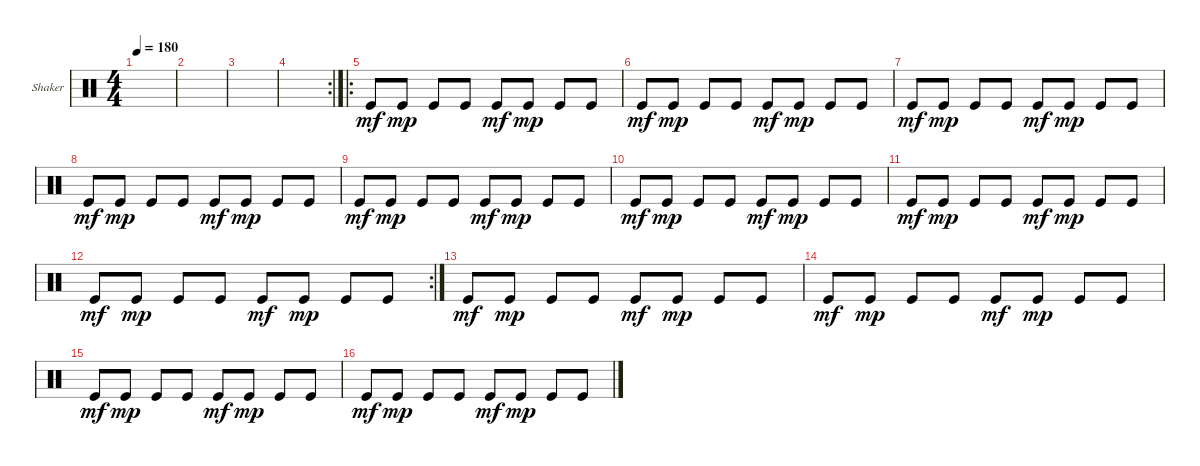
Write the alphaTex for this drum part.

\defaultSystemsLayout 4
\bracketExtendMode groupsimilarinstruments
\firstSystemTrackNameOrientation horizontal
\otherSystemsTrackNameOrientation horizontal
\track ("Shaker" "Shaker") {instrument percussion}
\staff {score}
\articulation defaults
\ts (4 4)
\tempo 180
\clef neutral
\ks c
|
|
|
\rc 2
|
\ro "Kick (hit)".8{dy mf} "Kick (hit)".8{dy mp} "Kick (hit)".8 "Kick (hit)".8 "Kick (hit)".8{dy mf} "Kick (hit)".8{dy mp} "Kick (hit)".8 "Kick (hit)".8
|
"Kick (hit)".8{dy mf} "Kick (hit)".8{dy mp} "Kick (hit)".8 "Kick (hit)".8 "Kick (hit)".8{dy mf} "Kick (hit)".8{dy mp} "Kick (hit)".8 "Kick (hit)".8 |
"Kick (hit)".8{dy mf} "Kick (hit)".8{dy mp} "Kick (hit)".8 "Kick (hit)".8 "Kick (hit)".8{dy mf} "Kick (hit)".8{dy mp} "Kick (hit)".8 "Kick (hit)".8 |
"Kick (hit)".8{dy mf} "Kick (hit)".8{dy mp} "Kick (hit)".8 "Kick (hit)".8 "Kick (hit)".8{dy mf} "Kick (hit)".8{dy mp} "Kick (hit)".8 "Kick (hit)".8 |
"Kick (hit)".8{dy mf} "Kick (hit)".8{dy mp} "Kick (hit)".8 "Kick (hit)".8 "Kick (hit)".8{dy mf} "Kick (hit)".8{dy mp} "Kick (hit)".8 "Kick (hit)".8 |
"Kick (hit)".8{dy mf} "Kick (hit)".8{dy mp} "Kick (hit)".8 "Kick (hit)".8 "Kick (hit)".8{dy mf} "Kick (hit)".8{dy mp} "Kick (hit)".8 "Kick (hit)".8 |
"Kick (hit)".8{dy mf} "Kick (hit)".8{dy mp} "Kick (hit)".8 "Kick (hit)".8 "Kick (hit)".8{dy mf} "Kick (hit)".8{dy mp} "Kick (hit)".8 "Kick (hit)".8 |
\rc 2 "Kick (hit)".8{dy mf} "Kick (hit)".8{dy mp} "Kick (hit)".8 "Kick (hit)".8 "Kick (hit)".8{dy mf} "Kick (hit)".8{dy mp} "Kick (hit)".8 "Kick (hit)".8
|
"Kick (hit)".8{dy mf} "Kick (hit)".8{dy mp} "Kick (hit)".8 "Kick (hit)".8 "Kick (hit)".8{dy mf} "Kick (hit)".8{dy mp} "Kick (hit)".8 "Kick (hit)".8 |
"Kick (hit)".8{dy mf} "Kick (hit)".8{dy mp} "Kick (hit)".8 "Kick (hit)".8 "Kick (hit)".8{dy mf} "Kick (hit)".8{dy mp} "Kick (hit)".8 "Kick (hit)".8 |
"Kick (hit)".8{dy mf} "Kick (hit)".8{dy mp} "Kick (hit)".8 "Kick (hit)".8 "Kick (hit)".8{dy mf} "Kick (hit)".8{dy mp} "Kick (hit)".8 "Kick (hit)".8 |
"Kick (hit)".8{dy mf} "Kick (hit)".8{dy mp} "Kick (hit)".8 "Kick (hit)".8 "Kick (hit)".8{dy mf} "Kick (hit)".8{dy mp} "Kick (hit)".8 "Kick (hit)".8
